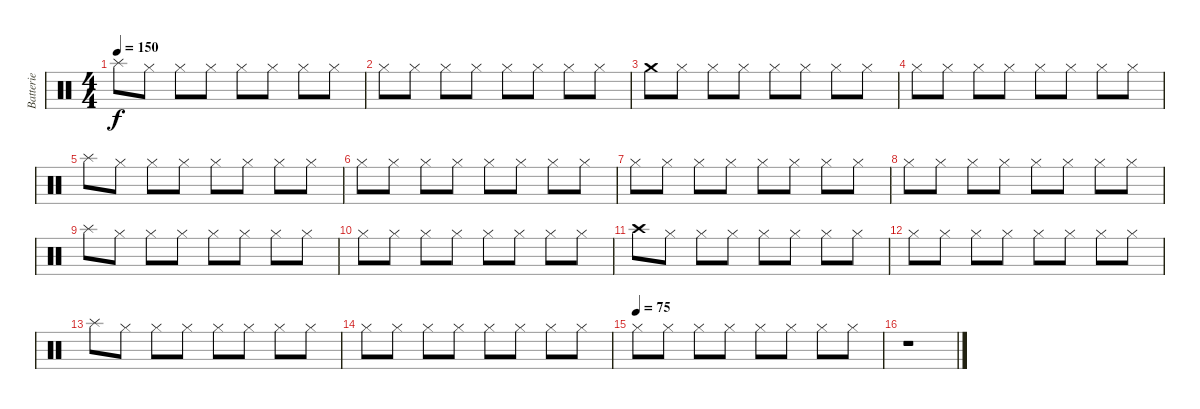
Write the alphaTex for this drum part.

\track ("Batterie" "Batterie") {instrument percussion}
\staff {score}
\articulation defaults
\ts (4 4)
\tempo 150
\clef neutral
\ks c "Splash (hit)".8{dy f volume 12} "Hi-Hat (closed)".8 "Hi-Hat (closed)".8 "Hi-Hat (closed)".8 "Hi-Hat (closed)".8 "Hi-Hat (closed)".8 "Hi-Hat (closed)".8 "Hi-Hat (closed)".8
|
"Hi-Hat (closed)".8 "Hi-Hat (closed)".8 "Hi-Hat (closed)".8 "Hi-Hat (closed)".8 "Hi-Hat (closed)".8 "Hi-Hat (closed)".8 "Hi-Hat (closed)".8 "Hi-Hat (closed)".8 |
"Crash medium (hit)".8 "Hi-Hat (closed)".8 "Hi-Hat (closed)".8 "Hi-Hat (closed)".8 "Hi-Hat (closed)".8 "Hi-Hat (closed)".8 "Hi-Hat (closed)".8 "Hi-Hat (closed)".8 |
"Hi-Hat (closed)".8 "Hi-Hat (closed)".8 "Hi-Hat (closed)".8 "Hi-Hat (closed)".8 "Hi-Hat (closed)".8 "Hi-Hat (closed)".8 "Hi-Hat (closed)".8 "Hi-Hat (closed)".8 |
"Splash (hit)".8 "Hi-Hat (closed)".8 "Hi-Hat (closed)".8 "Hi-Hat (closed)".8 "Hi-Hat (closed)".8 "Hi-Hat (closed)".8 "Hi-Hat (closed)".8 "Hi-Hat (closed)".8 |
"Hi-Hat (closed)".8 "Hi-Hat (closed)".8 "Hi-Hat (closed)".8 "Hi-Hat (closed)".8 "Hi-Hat (closed)".8 "Hi-Hat (closed)".8 "Hi-Hat (closed)".8 "Hi-Hat (closed)".8 |
"Hi-Hat (closed)".8 "Hi-Hat (closed)".8 "Hi-Hat (closed)".8 "Hi-Hat (closed)".8 "Hi-Hat (closed)".8 "Hi-Hat (closed)".8 "Hi-Hat (closed)".8 "Hi-Hat (closed)".8 |
"Hi-Hat (closed)".8 "Hi-Hat (closed)".8 "Hi-Hat (closed)".8 "Hi-Hat (closed)".8 "Hi-Hat (closed)".8 "Hi-Hat (closed)".8 "Hi-Hat (closed)".8 "Hi-Hat (closed)".8 |
"Splash (hit)".8{volume 12} "Hi-Hat (closed)".8 "Hi-Hat (closed)".8 "Hi-Hat (closed)".8 "Hi-Hat (closed)".8 "Hi-Hat (closed)".8 "Hi-Hat (closed)".8 "Hi-Hat (closed)".8 |
"Hi-Hat (closed)".8 "Hi-Hat (closed)".8 "Hi-Hat (closed)".8 "Hi-Hat (closed)".8 "Hi-Hat (closed)".8 "Hi-Hat (closed)".8 "Hi-Hat (closed)".8 "Hi-Hat (closed)".8 |
"Crash high (hit)".8 "Hi-Hat (closed)".8 "Hi-Hat (closed)".8 "Hi-Hat (closed)".8 "Hi-Hat (closed)".8 "Hi-Hat (closed)".8 "Hi-Hat (closed)".8 "Hi-Hat (closed)".8 |
"Hi-Hat (closed)".8 "Hi-Hat (closed)".8 "Hi-Hat (closed)".8 "Hi-Hat (closed)".8 "Hi-Hat (closed)".8 "Hi-Hat (closed)".8 "Hi-Hat (closed)".8 "Hi-Hat (closed)".8 |
"Splash (hit)".8 "Hi-Hat (closed)".8 "Hi-Hat (closed)".8 "Hi-Hat (closed)".8 "Hi-Hat (closed)".8 "Hi-Hat (closed)".8 "Hi-Hat (closed)".8 "Hi-Hat (closed)".8 |
"Hi-Hat (closed)".8 "Hi-Hat (closed)".8 "Hi-Hat (closed)".8 "Hi-Hat (closed)".8 "Hi-Hat (closed)".8 "Hi-Hat (closed)".8 "Hi-Hat (closed)".8 "Hi-Hat (closed)".8 |
\tempo (75)
"Hi-Hat (closed)".8 "Hi-Hat (closed)".8 "Hi-Hat (closed)".8 "Hi-Hat (closed)".8 "Hi-Hat (closed)".8 "Hi-Hat (closed)".8 "Hi-Hat (closed)".8 "Hi-Hat (closed)".8 |
r.1
